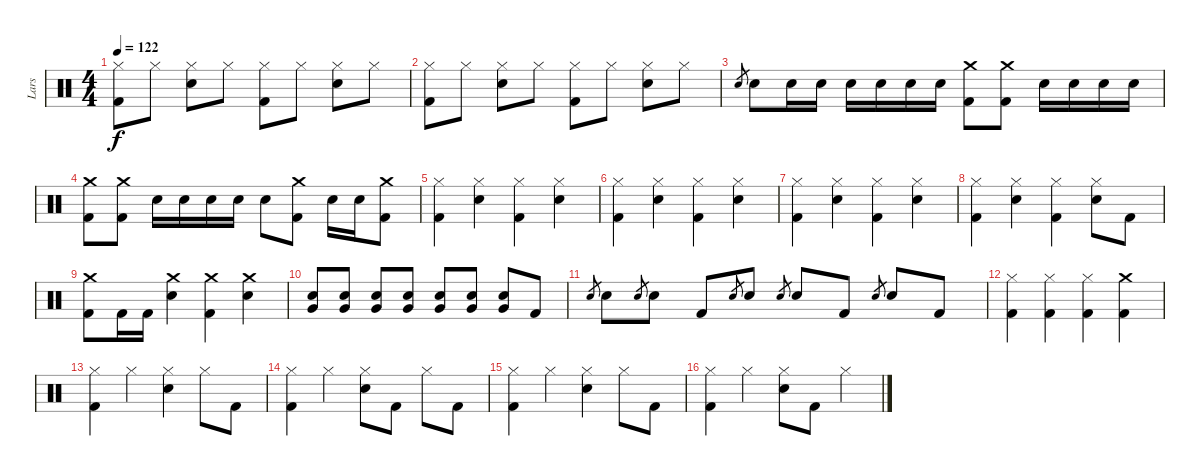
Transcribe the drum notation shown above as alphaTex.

\track ("Lars" "Lars") {instrument percussion}
\staff {score}
\articulation defaults
\ts (4 4)
\tempo 122
\clef neutral
\ks c
("Hi-Hat (closed)" "Kick (hit) 2").8{dy f} "Hi-Hat (closed)".8 ("Hi-Hat (closed)" "Snare (hit) 2").8 "Hi-Hat (closed)".8 ("Hi-Hat (closed)" "Kick (hit) 2").8 "Hi-Hat (closed)".8 ("Hi-Hat (closed)" "Snare (hit) 2").8 "Hi-Hat (closed)".8 |
("Hi-Hat (closed)" "Kick (hit) 2").8 "Hi-Hat (closed)".8 ("Hi-Hat (closed)" "Snare (hit) 2").8 "Hi-Hat (closed)".8 ("Hi-Hat (closed)" "Kick (hit) 2").8 "Hi-Hat (closed)".8 ("Hi-Hat (closed)" "Snare (hit) 2").8 "Hi-Hat (closed)".8 |
"Snare (hit) 2".8{gr} "Snare (hit) 2".8 "Snare (hit) 2".16 "Snare (hit) 2".16 "Snare (hit) 2".16 "Snare (hit) 2".16 "Snare (hit) 2".16 "Snare (hit) 2".16 ("Crash medium (hit)" "Kick (hit) 2").8 ("Crash medium (hit)" "Kick (hit) 2").8 "Snare (hit) 2".16 "Snare (hit) 2".16 "Snare (hit) 2".16 "Snare (hit) 2".16 |
("Crash medium (hit)" "Kick (hit) 2").8 ("Crash medium (hit)" "Kick (hit) 2").8 "Snare (hit) 2".16 "Snare (hit) 2".16 "Snare (hit) 2".16 "Snare (hit) 2".16 "Snare (hit) 2".8 ("Crash medium (hit)" "Kick (hit) 2").8 "Snare (hit) 2".16 "Snare (hit) 2".16 ("Crash medium (hit)" "Kick (hit) 2").8 |
("Hi-Hat (closed)" "Kick (hit) 2").4 ("Hi-Hat (closed)" "Snare (hit) 2").4 ("Hi-Hat (closed)" "Kick (hit) 2").4 ("Hi-Hat (closed)" "Snare (hit) 2").4 |
("Hi-Hat (closed)" "Kick (hit) 2").4 ("Hi-Hat (closed)" "Snare (hit) 2").4 ("Hi-Hat (closed)" "Kick (hit) 2").4 ("Hi-Hat (closed)" "Snare (hit) 2").4 |
("Hi-Hat (closed)" "Kick (hit) 2").4 ("Hi-Hat (closed)" "Snare (hit) 2").4 ("Hi-Hat (closed)" "Kick (hit) 2").4 ("Hi-Hat (closed)" "Snare (hit) 2").4 |
("Hi-Hat (closed)" "Kick (hit) 2").4 ("Hi-Hat (closed)" "Snare (hit) 2").4 ("Hi-Hat (closed)" "Kick (hit) 2").4 ("Hi-Hat (closed)" "Snare (hit) 2").8 "Kick (hit) 2".8 |
("Crash medium (hit)" "Kick (hit) 2").8 "Kick (hit) 2".16 "Kick (hit) 2".16 ("Crash medium (hit)" "Snare (hit) 2").4 ("Crash medium (hit)" "Kick (hit) 2").4 ("Crash medium (hit)" "Snare (hit) 2").4 |
("Snare (hit) 2" "Very Low Tom (hit)").8 ("Snare (hit) 2" "Very Low Tom (hit)").8 ("Snare (hit) 2" "Very Low Tom (hit)").8 ("Snare (hit) 2" "Very Low Tom (hit)").8 ("Snare (hit) 2" "Very Low Tom (hit)").8 ("Snare (hit) 2" "Very Low Tom (hit)").8 ("Snare (hit) 2" "Very Low Tom (hit)").8 "Kick (hit) 2".8 |
"Snare (hit) 2".8{gr} "Snare (hit) 2".8 "Snare (hit) 2".8{gr} "Snare (hit) 2".8 "Kick (hit) 2".8 "Snare (hit) 2".8{gr} "Snare (hit) 2".8 "Snare (hit) 2".8{gr} "Snare (hit) 2".8 "Kick (hit) 2".8 "Snare (hit) 2".8{gr} "Snare (hit) 2".8 "Kick (hit) 2".8 |
("Hi-Hat (closed)" "Kick (hit) 2").4 ("Hi-Hat (closed)" "Kick (hit) 2").4 ("Hi-Hat (closed)" "Kick (hit) 2").4 ("Crash medium (hit)" "Kick (hit) 2").4 |
("Hi-Hat (closed)" "Kick (hit) 2").4 "Hi-Hat (closed)".4 ("Hi-Hat (closed)" "Snare (hit) 2").4 "Hi-Hat (closed)".8 "Kick (hit) 2".8 |
("Hi-Hat (closed)" "Kick (hit) 2").4 "Hi-Hat (closed)".4 ("Hi-Hat (closed)" "Snare (hit) 2").8 "Kick (hit) 2".8 "Hi-Hat (closed)".8 "Kick (hit) 2".8 |
("Hi-Hat (closed)" "Kick (hit) 2").4 "Hi-Hat (closed)".4 ("Hi-Hat (closed)" "Snare (hit) 2").4 "Hi-Hat (closed)".8 "Kick (hit) 2".8 |
("Hi-Hat (closed)" "Kick (hit) 2").4 "Hi-Hat (closed)".4 ("Hi-Hat (closed)" "Snare (hit) 2").8 "Kick (hit) 2".8 "Hi-Hat (closed)".4
